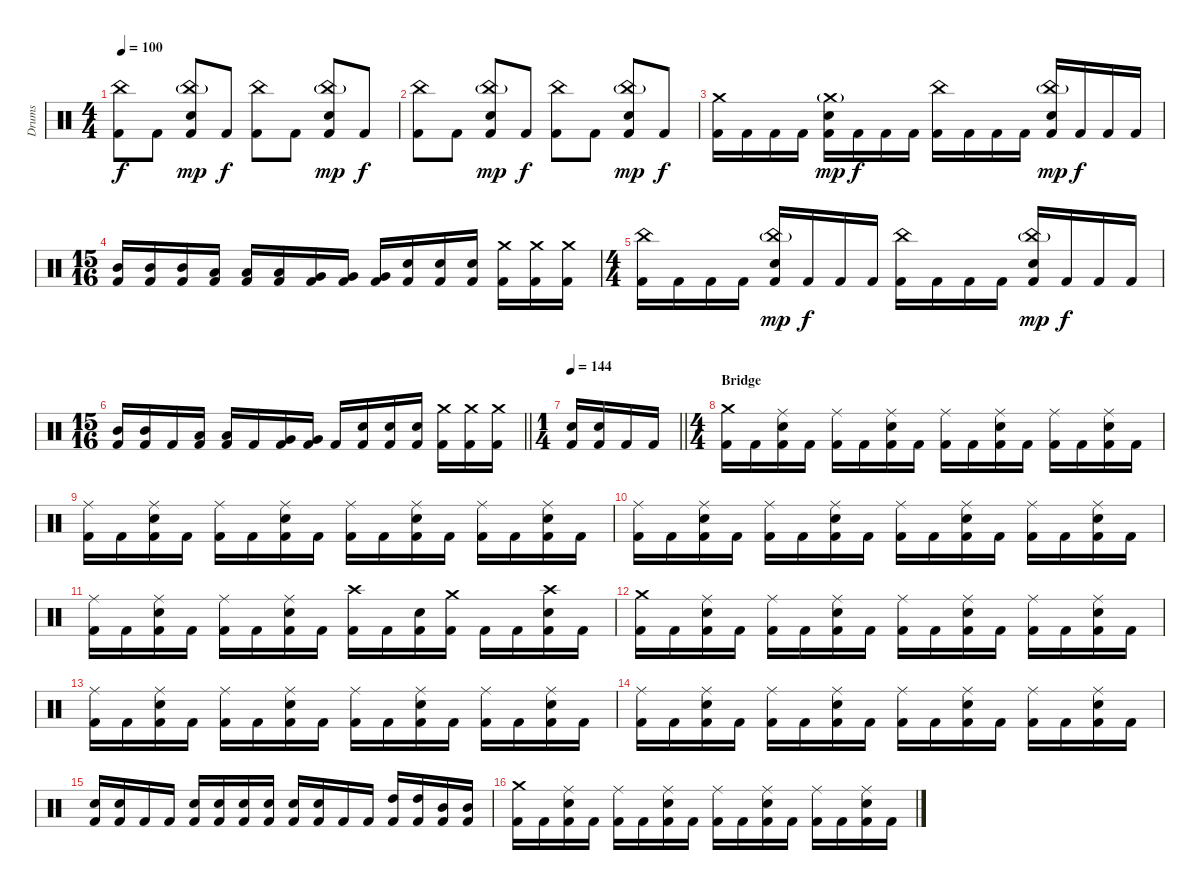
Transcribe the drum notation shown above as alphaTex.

\track ("Drums" "Drums") {instrument percussion}
\staff {score}
\articulation defaults
\ts (4 4)
\tempo 100
\clef neutral
\ks c
("Kick (hit) 2" "China (hit)").8{dy f} "Kick (hit) 2".8 ("Kick (hit) 2" "Snare (hit) 2" "China (hit)"{g}).8{dy mp} "Kick (hit) 2".8{dy f} ("Kick (hit) 2" "China (hit)").8 "Kick (hit) 2".8 ("Kick (hit) 2" "Snare (hit) 2" "China (hit)"{g}).8{dy mp} "Kick (hit) 2".8{dy f} |
("Kick (hit) 2" "China (hit)").8 "Kick (hit) 2".8 ("Kick (hit) 2" "Snare (hit) 2" "China (hit)"{g}).8{dy mp} "Kick (hit) 2".8{dy f} ("Kick (hit) 2" "China (hit)").8 "Kick (hit) 2".8 ("Kick (hit) 2" "Snare (hit) 2" "China (hit)"{g}).8{dy mp} "Kick (hit) 2".8{dy f} |
("Kick (hit) 2" "Crash medium (hit)").16 "Kick (hit) 2".16 "Kick (hit) 2".16 "Kick (hit) 2".16 ("Kick (hit) 2" "Snare (hit) 2" "Crash medium (hit)"{g}).16{dy mp} "Kick (hit) 2".16{dy f} "Kick (hit) 2".16 "Kick (hit) 2".16 ("Kick (hit) 2" "China (hit)").16 "Kick (hit) 2".16 "Kick (hit) 2".16 "Kick (hit) 2".16 ("Kick (hit) 2" "Snare (hit) 2" "China (hit)"{g}).16{dy mp} "Kick (hit) 2".16{dy f} "Kick (hit) 2".16 "Kick (hit) 2".16 |
\ts (15 16)
("Kick (hit) 2" "Mid Tom (hit)").16 ("Kick (hit) 2" "Mid Tom (hit)").16 ("Kick (hit) 2" "Mid Tom (hit)").16 ("Kick (hit) 2" "Low Tom (hit)").16 ("Kick (hit) 2" "Low Tom (hit)").16 ("Kick (hit) 2" "Low Tom (hit)").16 ("Kick (hit) 2" "Very Low Tom (hit)").16 ("Kick (hit) 2" "Very Low Tom (hit)").16 ("Kick (hit) 2" "Very Low Tom (hit)").16 ("Kick (hit) 2" "Snare (hit) 2").16 ("Kick (hit) 2" "Snare (hit) 2").16 ("Kick (hit) 2" "Snare (hit) 2").16 ("Kick (hit) 2" "Crash medium (hit)").16 ("Kick (hit) 2" "Crash medium (hit)").16 ("Kick (hit) 2" "Crash medium (hit)").16 |
\ts (4 4)
("Kick (hit) 2" "China (hit)").16 "Kick (hit) 2".16 "Kick (hit) 2".16 "Kick (hit) 2".16 ("Kick (hit) 2" "Snare (hit) 2" "China (hit)"{g}).16{dy mp} "Kick (hit) 2".16{dy f} "Kick (hit) 2".16 "Kick (hit) 2".16 ("Kick (hit) 2" "China (hit)").16 "Kick (hit) 2".16 "Kick (hit) 2".16 "Kick (hit) 2".16 ("Kick (hit) 2" "Snare (hit) 2" "China (hit)"{g}).16{dy mp} "Kick (hit) 2".16{dy f} "Kick (hit) 2".16 "Kick (hit) 2".16 |
\ts (15 16)
\barLineRight lightlight
("Kick (hit) 2" "Mid Tom (hit)").16 ("Kick (hit) 2" "Mid Tom (hit)").16 "Kick (hit) 2".16 ("Kick (hit) 2" "Low Tom (hit)").16 ("Kick (hit) 2" "Low Tom (hit)").16 "Kick (hit) 2".16 ("Kick (hit) 2" "Very Low Tom (hit)").16 ("Kick (hit) 2" "Very Low Tom (hit)").16 "Kick (hit) 2".16 ("Kick (hit) 2" "Snare (hit) 2").16 ("Kick (hit) 2" "Snare (hit) 2").16 ("Kick (hit) 2" "Snare (hit) 2").16 ("Kick (hit) 2" "Crash medium (hit)").16 ("Kick (hit) 2" "Crash medium (hit)").16 ("Kick (hit) 2" "Crash medium (hit)").16 |
\ts (1 4)
\tempo 144
\barLineRight lightlight
("Kick (hit) 2" "Snare (hit) 2").16 ("Kick (hit) 2" "Snare (hit) 2").16 "Kick (hit) 2".16 "Kick (hit) 2".16 |
\ts (4 4)
\section ("" "Bridge")
("Kick (hit) 2" "Crash medium (hit)").16 "Kick (hit) 2".16 ("Kick (hit) 2" "Snare (hit) 2" "Ride (middle)").16 "Kick (hit) 2".16 ("Kick (hit) 2" "Ride (middle)").16 "Kick (hit) 2".16 ("Kick (hit) 2" "Snare (hit) 2" "Ride (middle)").16 "Kick (hit) 2".16 ("Kick (hit) 2" "Ride (middle)").16 "Kick (hit) 2".16 ("Kick (hit) 2" "Snare (hit) 2" "Ride (middle)").16 "Kick (hit) 2".16 ("Kick (hit) 2" "Ride (middle)").16 "Kick (hit) 2".16 ("Kick (hit) 2" "Snare (hit) 2" "Ride (middle)").16 "Kick (hit) 2".16 |
("Kick (hit) 2" "Ride (middle)").16 "Kick (hit) 2".16 ("Kick (hit) 2" "Snare (hit) 2" "Ride (middle)").16 "Kick (hit) 2".16 ("Kick (hit) 2" "Ride (middle)").16 "Kick (hit) 2".16 ("Kick (hit) 2" "Snare (hit) 2" "Ride (middle)").16 "Kick (hit) 2".16 ("Kick (hit) 2" "Ride (middle)").16 "Kick (hit) 2".16 ("Kick (hit) 2" "Snare (hit) 2" "Ride (middle)").16 "Kick (hit) 2".16 ("Kick (hit) 2" "Ride (middle)").16 "Kick (hit) 2".16 ("Kick (hit) 2" "Snare (hit) 2" "Ride (middle)").16 "Kick (hit) 2".16 |
("Kick (hit) 2" "Ride (middle)").16 "Kick (hit) 2".16 ("Kick (hit) 2" "Snare (hit) 2" "Ride (middle)").16 "Kick (hit) 2".16 ("Kick (hit) 2" "Ride (middle)").16 "Kick (hit) 2".16 ("Kick (hit) 2" "Snare (hit) 2" "Ride (middle)").16 "Kick (hit) 2".16 ("Kick (hit) 2" "Ride (middle)").16 "Kick (hit) 2".16 ("Kick (hit) 2" "Snare (hit) 2" "Ride (middle)").16 "Kick (hit) 2".16 ("Kick (hit) 2" "Ride (middle)").16 "Kick (hit) 2".16 ("Kick (hit) 2" "Snare (hit) 2" "Ride (middle)").16 "Kick (hit) 2".16 |
("Kick (hit) 2" "Ride (middle)").16 "Kick (hit) 2".16 ("Kick (hit) 2" "Snare (hit) 2" "Ride (middle)").16 "Kick (hit) 2".16 ("Kick (hit) 2" "Ride (middle)").16 "Kick (hit) 2".16 ("Kick (hit) 2" "Snare (hit) 2" "Ride (middle)").16 "Kick (hit) 2".16 ("Kick (hit) 2" "Crash high (hit)").16 "Kick (hit) 2".16 ("Kick (hit) 2" "Snare (hit) 2").16 ("Kick (hit) 2" "Crash medium (hit)").16 "Kick (hit) 2".16 "Kick (hit) 2".16 ("Kick (hit) 2" "Snare (hit) 2" "Crash high (hit)").16 "Kick (hit) 2".16 |
("Kick (hit) 2" "Crash medium (hit)").16 "Kick (hit) 2".16 ("Kick (hit) 2" "Snare (hit) 2" "Ride (middle)").16 "Kick (hit) 2".16 ("Kick (hit) 2" "Ride (middle)").16 "Kick (hit) 2".16 ("Kick (hit) 2" "Snare (hit) 2" "Ride (middle)").16 "Kick (hit) 2".16 ("Kick (hit) 2" "Ride (middle)").16 "Kick (hit) 2".16 ("Kick (hit) 2" "Snare (hit) 2" "Ride (middle)").16 "Kick (hit) 2".16 ("Kick (hit) 2" "Ride (middle)").16 "Kick (hit) 2".16 ("Kick (hit) 2" "Snare (hit) 2" "Ride (middle)").16 "Kick (hit) 2".16 |
("Kick (hit) 2" "Ride (middle)").16 "Kick (hit) 2".16 ("Kick (hit) 2" "Snare (hit) 2" "Ride (middle)").16 "Kick (hit) 2".16 ("Kick (hit) 2" "Ride (middle)").16 "Kick (hit) 2".16 ("Kick (hit) 2" "Snare (hit) 2" "Ride (middle)").16 "Kick (hit) 2".16 ("Kick (hit) 2" "Ride (middle)").16 "Kick (hit) 2".16 ("Kick (hit) 2" "Snare (hit) 2" "Ride (middle)").16 "Kick (hit) 2".16 ("Kick (hit) 2" "Ride (middle)").16 "Kick (hit) 2".16 ("Kick (hit) 2" "Snare (hit) 2" "Ride (middle)").16 "Kick (hit) 2".16 |
("Kick (hit) 2" "Ride (middle)").16 "Kick (hit) 2".16 ("Kick (hit) 2" "Snare (hit) 2" "Ride (middle)").16 "Kick (hit) 2".16 ("Kick (hit) 2" "Ride (middle)").16 "Kick (hit) 2".16 ("Kick (hit) 2" "Snare (hit) 2" "Ride (middle)").16 "Kick (hit) 2".16 ("Kick (hit) 2" "Ride (middle)").16 "Kick (hit) 2".16 ("Kick (hit) 2" "Snare (hit) 2" "Ride (middle)").16 "Kick (hit) 2".16 ("Kick (hit) 2" "Ride (middle)").16 "Kick (hit) 2".16 ("Kick (hit) 2" "Snare (hit) 2" "Ride (middle)").16 "Kick (hit) 2".16 |
("Kick (hit) 2" "Snare (hit) 2").16 ("Kick (hit) 2" "Snare (hit) 2").16 "Kick (hit) 2".16 "Kick (hit) 2".16 ("Kick (hit) 2" "Snare (hit) 2").16 ("Kick (hit) 2" "Snare (hit) 2").16 ("Kick (hit) 2" "Snare (hit) 2").16 ("Kick (hit) 2" "Snare (hit) 2").16 ("Kick (hit) 2" "Snare (hit) 2").16 ("Kick (hit) 2" "Snare (hit) 2").16 "Kick (hit) 2".16 "Kick (hit) 2".16 ("Kick (hit) 2" "High Tom (hit)").16 ("Kick (hit) 2" "High Tom (hit)").16 ("Kick (hit) 2" "Mid Tom (hit)").16 ("Kick (hit) 2" "Mid Tom (hit)").16 |
("Kick (hit) 2" "Crash medium (hit)").16 "Kick (hit) 2".16 ("Kick (hit) 2" "Snare (hit) 2" "Ride (middle)").16 "Kick (hit) 2".16 ("Kick (hit) 2" "Ride (middle)").16 "Kick (hit) 2".16 ("Kick (hit) 2" "Snare (hit) 2" "Ride (middle)").16 "Kick (hit) 2".16 ("Kick (hit) 2" "Ride (middle)").16 "Kick (hit) 2".16 ("Kick (hit) 2" "Snare (hit) 2" "Ride (middle)").16 "Kick (hit) 2".16 ("Kick (hit) 2" "Ride (middle)").16 "Kick (hit) 2".16 ("Kick (hit) 2" "Snare (hit) 2" "Ride (middle)").16 "Kick (hit) 2".16
